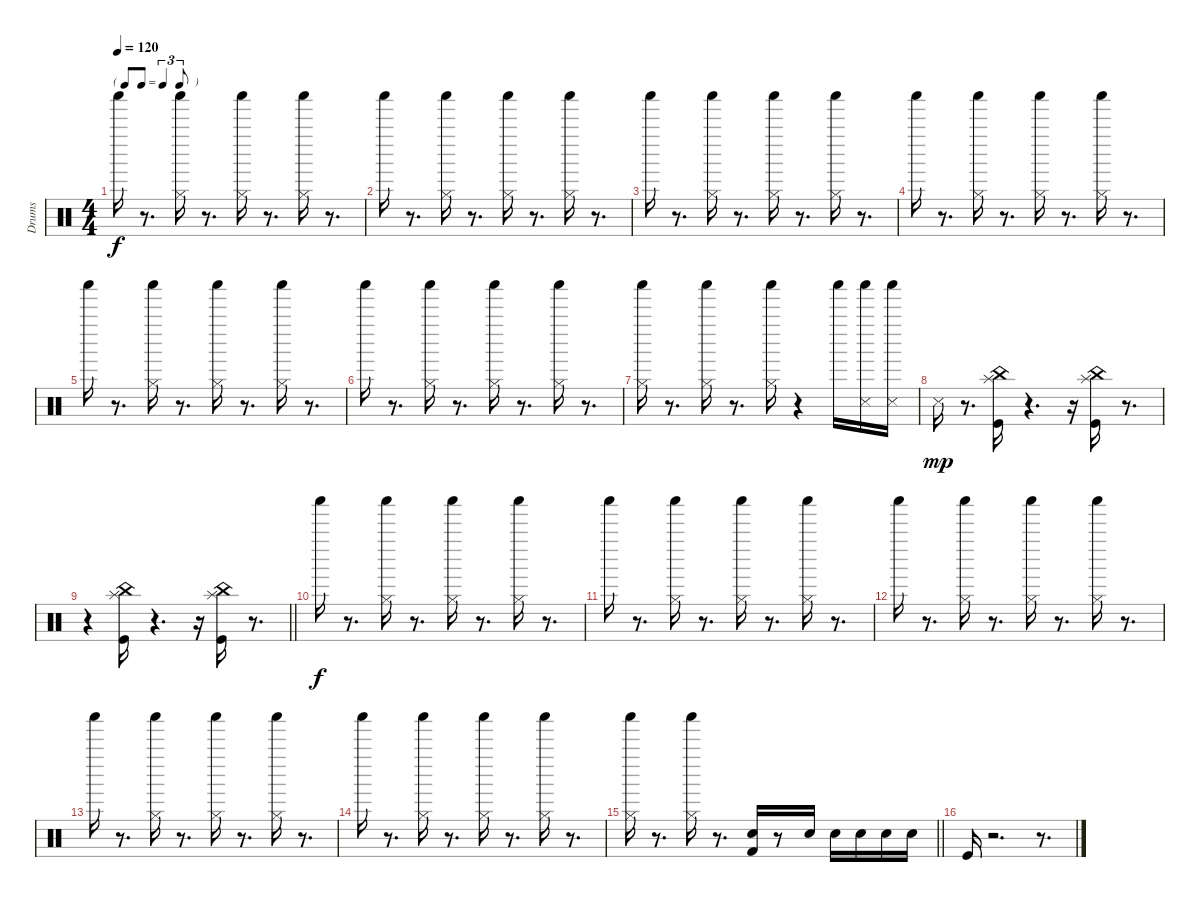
\track ("Drums  " "Drums  ") {instrument percussion}
\staff {score}
\articulation defaults
\ts (4 4)
\tf triplet8th
\tempo 120
\clef neutral
\ks c "Shaker (hit)".16{dy f}
r.8{d} ("Shaker (hit)" "Hi-Hat (closed)").16 r.8{d} ("Shaker (hit)" "Hi-Hat (closed)").16 r.8{d} ("Shaker (hit)" "Hi-Hat (closed)").16 r.8{d} |
"Shaker (hit)".16 r.8{d} ("Shaker (hit)" "Hi-Hat (closed)").16 r.8{d} ("Shaker (hit)" "Hi-Hat (closed)").16 r.8{d} ("Shaker (hit)" "Hi-Hat (closed)").16 r.8{d} |
"Shaker (hit)".16 r.8{d} ("Shaker (hit)" "Hi-Hat (closed)").16 r.8{d} ("Shaker (hit)" "Hi-Hat (closed)").16 r.8{d} ("Shaker (hit)" "Hi-Hat (closed)").16 r.8{d} |
"Shaker (hit)".16 r.8{d} ("Shaker (hit)" "Hi-Hat (closed)").16 r.8{d} ("Shaker (hit)" "Hi-Hat (closed)").16 r.8{d} ("Shaker (hit)" "Hi-Hat (closed)").16 r.8{d} |
"Shaker (hit)".16 r.8{d} ("Shaker (hit)" "Hi-Hat (closed)").16 r.8{d} ("Shaker (hit)" "Hi-Hat (closed)").16 r.8{d} ("Shaker (hit)" "Hi-Hat (closed)").16 r.8{d} |
"Shaker (hit)".16 r.8{d} ("Shaker (hit)" "Hi-Hat (closed)").16 r.8{d} ("Shaker (hit)" "Hi-Hat (closed)").16 r.8{d} ("Shaker (hit)" "Hi-Hat (closed)").16 r.8{d} |
("Shaker (hit)" "Hi-Hat (closed)").16 r.8{d} ("Shaker (hit)" "Hi-Hat (closed)").16 r.8{d} ("Shaker (hit)" "Hi-Hat (closed)").16 r.4 "Shaker (hit)".16 ("Snare (side stick) 3" "Shaker (hit)").16 ("Snare (side stick) 3" "Shaker (hit)").16 |
"Snare (side stick) 3".16{dy mp} r.8{d} ("Splash (hit)" "Kick (hit)" "China (hit)").16 r.4{d} r.16 ("Splash (hit)" "Kick (hit)" "China (hit)").16 r.8{d} |
\barLineRight lightlight
r.4 ("Splash (hit)" "Kick (hit)" "China (hit)").16 r.4{d} r.16 ("Splash (hit)" "Kick (hit)" "China (hit)").16 r.8{d} |
"Shaker (hit)".16{dy f} r.8{d} ("Shaker (hit)" "Hi-Hat (closed)").16 r.8{d} ("Shaker (hit)" "Hi-Hat (closed)").16 r.8{d} ("Shaker (hit)" "Hi-Hat (closed)").16 r.8{d} |
"Shaker (hit)".16 r.8{d} ("Shaker (hit)" "Hi-Hat (closed)").16 r.8{d} ("Shaker (hit)" "Hi-Hat (closed)").16 r.8{d} ("Shaker (hit)" "Hi-Hat (closed)").16 r.8{d} |
"Shaker (hit)".16 r.8{d} ("Shaker (hit)" "Hi-Hat (closed)").16 r.8{d} ("Shaker (hit)" "Hi-Hat (closed)").16 r.8{d} ("Shaker (hit)" "Hi-Hat (closed)").16 r.8{d} |
"Shaker (hit)".16 r.8{d} ("Shaker (hit)" "Hi-Hat (closed)").16 r.8{d} ("Shaker (hit)" "Hi-Hat (closed)").16 r.8{d} ("Shaker (hit)" "Hi-Hat (closed)").16 r.8{d} |
"Shaker (hit)".16 r.8{d} ("Shaker (hit)" "Hi-Hat (closed)").16 r.8{d} ("Shaker (hit)" "Hi-Hat (closed)").16 r.8{d} ("Shaker (hit)" "Hi-Hat (closed)").16 r.8{d} |
\barLineRight lightlight
("Shaker (hit)" "Hi-Hat (closed)").16 r.8{d} ("Shaker (hit)" "Hi-Hat (closed)").16 r.8{d} ("Snare (hit) 2" "Kick (hit) 2").16 r.8 "Electric Snare (hit)".16 "Electric Snare (hit)".16 "Electric Snare (hit)".16 "Electric Snare (hit)".16 "Electric Snare (hit)".16 |
"Kick (hit)".16 r.2{d} r.8{d}
